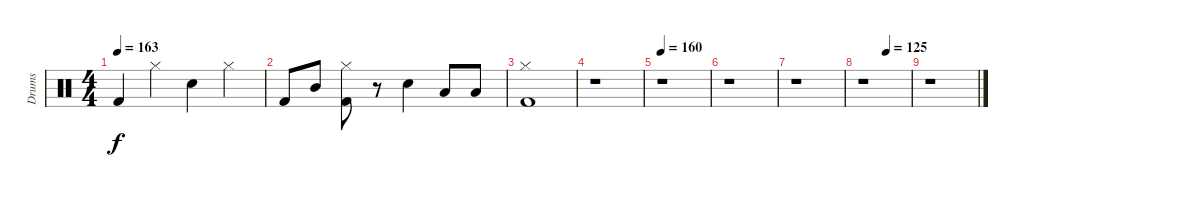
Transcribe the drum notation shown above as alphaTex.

\track ("Drums" "Drums") {instrument percussion}
\staff {score}
\articulation defaults
\ts (4 4)
\tempo 163
\clef neutral
\ks c "Kick (hit) 2".4{dy f} "Hi-Hat (closed)".4 "Snare (hit) 2".4 "Hi-Hat (closed)".4
|
"Kick (hit) 2".8 "Mid Tom (hit)".8 ("Hi-Hat (closed)" "Kick (hit) 2").8 r.8 "Snare (hit) 2".4 "Low Tom (hit)".8 "Low Tom (hit)".8 |
("Hi-Hat (closed)" "Kick (hit) 2").1 |
r.1 |
\tempo 160
r.1 |
r.1 |
r.1 |
\tempo (125 0.5)
r.1 |
r.1
